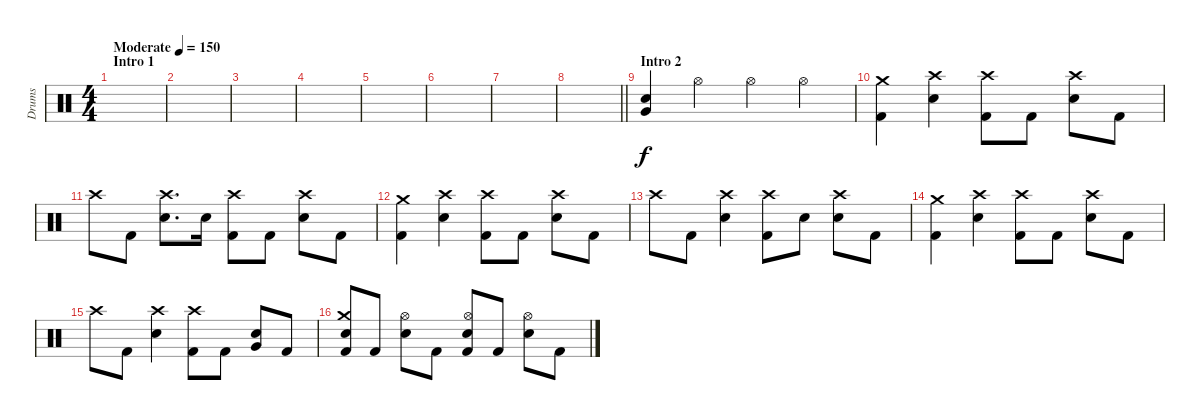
\track ("Drums" "Drums") {instrument percussion}
\staff {score}
\articulation defaults
\ts (4 4)
\section ("" "Intro 1")
\tempo (150 "Moderate")
\clef neutral
\ks c
|
|
|
|
|
|
|
\barLineRight lightlight
|
\section ("" "Intro 2")
("Very Low Tom (hit)" "Electric Snare (hit)").4 "Hi-Hat (open)".4 "Hi-Hat (open)".4 "Hi-Hat (open)".4 |
("Crash medium (hit)" "Kick (hit) 2").4 ("Crash high (hit)" "Electric Snare (hit)").4 ("Crash high (hit)" "Kick (hit) 2").8 "Kick (hit) 2".8 ("Crash high (hit)" "Electric Snare (hit)").8 "Kick (hit) 2".8 |
"Crash high (hit)".8 "Kick (hit) 2".8 ("Crash high (hit)" "Electric Snare (hit)").8{d} "Electric Snare (hit)".16 ("Crash high (hit)" "Kick (hit) 2").8 "Kick (hit) 2".8 ("Crash high (hit)" "Electric Snare (hit)").8 "Kick (hit) 2".8 |
("Crash medium (hit)" "Kick (hit) 2").4 ("Crash high (hit)" "Electric Snare (hit)").4 ("Crash high (hit)" "Kick (hit) 2").8 "Kick (hit) 2".8 ("Crash high (hit)" "Electric Snare (hit)").8 "Kick (hit) 2".8 |
"Crash high (hit)".8 "Kick (hit) 2".8 ("Crash high (hit)" "Electric Snare (hit)").4 ("Crash high (hit)" "Kick (hit) 2").8 "Electric Snare (hit)".8 ("Crash high (hit)" "Electric Snare (hit)").8 "Kick (hit) 2".8 |
("Crash medium (hit)" "Kick (hit) 2").4 ("Crash high (hit)" "Electric Snare (hit)").4 ("Crash high (hit)" "Kick (hit) 2").8 "Kick (hit) 2".8 ("Crash high (hit)" "Electric Snare (hit)").8 "Kick (hit) 2".8 |
"Crash high (hit)".8 "Kick (hit) 2".8 ("Crash high (hit)" "Electric Snare (hit)").4 ("Crash high (hit)" "Kick (hit) 2").8 "Kick (hit) 2".8 ("Electric Snare (hit)" "Very Low Tom (hit)").8 "Kick (hit) 2".8 |
("Crash medium (hit)" "Electric Snare (hit)" "Kick (hit) 2").8 "Kick (hit) 2".8 ("Hi-Hat (open)" "Electric Snare (hit)").8 "Kick (hit) 2".8 ("Hi-Hat (open)" "Electric Snare (hit)" "Kick (hit) 2").8 "Kick (hit) 2".8 ("Hi-Hat (open)" "Electric Snare (hit)").8 "Kick (hit) 2".8
